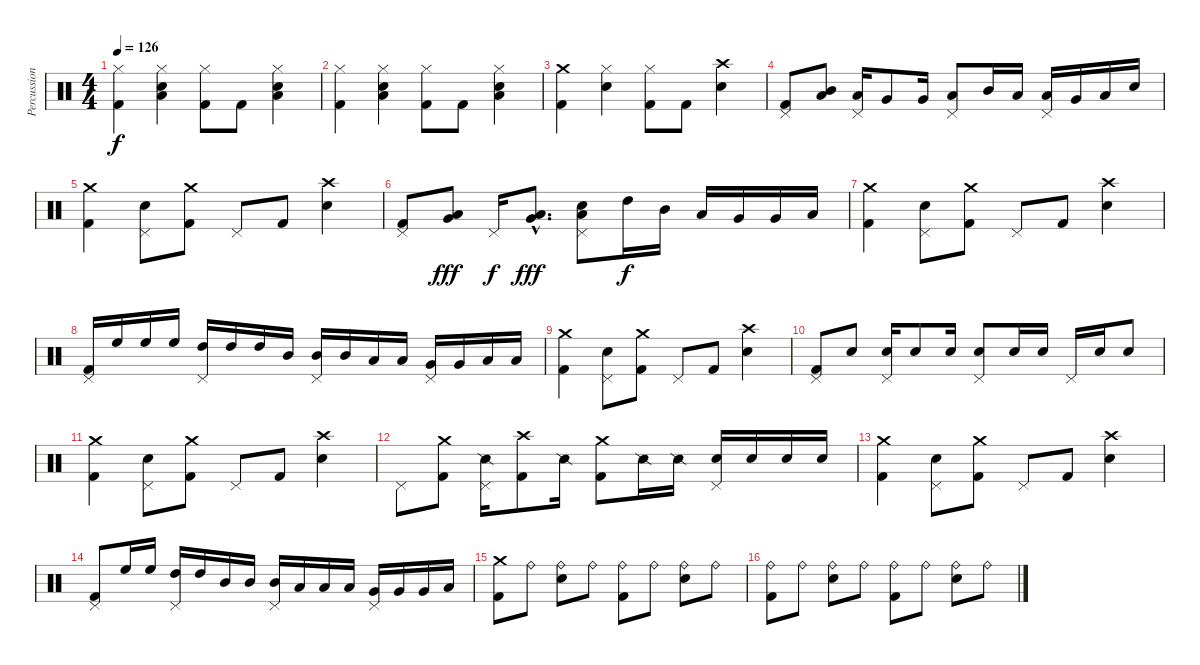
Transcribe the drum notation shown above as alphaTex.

\track ("Percussion" "Percussion") {instrument percussion}
\staff {score}
\articulation defaults
\ts (4 4)
\tempo 126
\clef neutral
\ks c
("Hi-Hat (closed)" "Kick (hit) 2").4{dy f} ("Hi-Hat (closed)" "Low Floor Tom (hit)" "Metronome (bell)").4 ("Hi-Hat (closed)" "Kick (hit) 2").8 "Kick (hit) 2".8 ("Hi-Hat (closed)" "Low Floor Tom (hit)" "Metronome (bell)").4 |
("Hi-Hat (closed)" "Kick (hit) 2").4 ("Hi-Hat (closed)" "Low Floor Tom (hit)" "Metronome (bell)").4 ("Hi-Hat (closed)" "Kick (hit) 2").8 "Kick (hit) 2".8 ("Hi-Hat (closed)" "Low Floor Tom (hit)" "Metronome (bell)").4 |
("Crash medium (hit)" "Kick (hit) 2").4 ("Hi-Hat (closed)" "Metronome (bell)").4 ("Hi-Hat (closed)" "Kick (hit) 2").8 "Kick (hit) 2".8 ("Crash high (hit)" "Metronome (bell)").4 |
("Pedal Hi-Hat (hit)" "Kick (hit) 2").8 ("Mid Tom (hit)" "Low Tom (hit)").8 ("Pedal Hi-Hat (hit)" "Low Tom (hit)").16 "Very Low Tom (hit)".8 "Very Low Tom (hit)".16 ("Pedal Hi-Hat (hit)" "Low Tom (hit)").8 "Mid Tom (hit)".16 "Low Tom (hit)".16 ("Pedal Hi-Hat (hit)" "Low Tom (hit)").16 "Very Low Tom (hit)".16 "Low Floor Tom (hit)".16 "Snare (hit)".16 |
("Crash medium (hit)" "Kick (hit) 2").4 ("Pedal Hi-Hat (hit)" "Metronome (bell)").8 ("Crash medium (hit)" "Kick (hit) 2").8 "Pedal Hi-Hat (hit)".8 "Kick (hit) 2".8 ("Crash high (hit)" "Metronome (bell)").4 |
("Pedal Hi-Hat (hit)" "Kick (hit) 2").8 ("Low Tom (hit)" "Very Low Tom (hit)").8{dy fff} "Pedal Hi-Hat (hit)".16{dy f} ("Very Low Tom (hit)"{hac} "Low Floor Tom (hit)"{hac}).8{d dy fff} ("Pedal Hi-Hat (hit)" "Low Floor Tom (hit)" "Snare (hit)").8 "High Tom (hit)".16{dy f} "Mid Tom (hit)".16 "Low Tom (hit)".16 "Very Low Tom (hit)".16 "Very Low Tom (hit)".16 "Low Floor Tom (hit)".16 |
("Crash medium (hit)" "Kick (hit) 2").4 ("Pedal Hi-Hat (hit)" "Metronome (bell)").8 ("Crash medium (hit)" "Kick (hit) 2").8 "Pedal Hi-Hat (hit)".8 "Kick (hit) 2".8 ("Crash high (hit)" "Metronome (bell)").4 |
("Pedal Hi-Hat (hit)" "Kick (hit) 2").16 "High Floor Tom (hit)".16 "High Floor Tom (hit)".16 "High Floor Tom (hit)".16 ("Pedal Hi-Hat (hit)" "High Tom (hit)").16 "High Tom (hit)".16 "High Tom (hit)".16 "Mid Tom (hit)".16 ("Pedal Hi-Hat (hit)" "Mid Tom (hit)").16 "Mid Tom (hit)".16 "Low Tom (hit)".16 "Low Tom (hit)".16 ("Pedal Hi-Hat (hit)" "Very Low Tom (hit)").16 "Very Low Tom (hit)".16 "Low Floor Tom (hit)".16 "Low Floor Tom (hit)".16 |
("Crash medium (hit)" "Kick (hit) 2").4 ("Pedal Hi-Hat (hit)" "Metronome (bell)").8 ("Crash medium (hit)" "Kick (hit) 2").8 "Pedal Hi-Hat (hit)".8 "Kick (hit) 2".8 ("Crash high (hit)" "Metronome (bell)").4 |
("Pedal Hi-Hat (hit)" "Kick (hit) 2").8 "Metronome (bell)".8 ("Pedal Hi-Hat (hit)" "Metronome (bell)").16 "Metronome (bell)".8 "Metronome (bell)".16 ("Pedal Hi-Hat (hit)" "Metronome (bell)").8 "Metronome (bell)".16 "Metronome (bell)".16 "Pedal Hi-Hat (hit)".16 "Metronome (bell)".16 "Metronome (bell)".8 |
("Crash medium (hit)" "Kick (hit) 2").4 ("Pedal Hi-Hat (hit)" "Metronome (bell)").8 ("Crash medium (hit)" "Kick (hit) 2").8 "Pedal Hi-Hat (hit)".8 "Kick (hit) 2".8 ("Crash high (hit)" "Metronome (bell)").4 |
"Pedal Hi-Hat (hit)".8 ("Crash medium (hit)" "Kick (hit) 2").8 ("Pedal Hi-Hat (hit)" "Snare (side stick) 2").16 ("Crash high (hit)" "Kick (hit) 2").8 "Snare (side stick) 2".16 ("Crash medium (hit)" "Kick (hit) 2").8 "Snare (side stick) 2".16 "Snare (side stick) 2".16 ("Pedal Hi-Hat (hit)" "Metronome (bell)").16 "Metronome (bell)".16 "Metronome (bell)".16 "Metronome (bell)".16 |
("Crash medium (hit)" "Kick (hit) 2").4 ("Pedal Hi-Hat (hit)" "Metronome (bell)").8 ("Crash medium (hit)" "Kick (hit) 2").8 "Pedal Hi-Hat (hit)".8 "Kick (hit) 2".8 ("Crash high (hit)" "Metronome (bell)").4 |
("Pedal Hi-Hat (hit)" "Kick (hit) 2").8 "High Floor Tom (hit)".16 "High Floor Tom (hit)".16 ("Pedal Hi-Hat (hit)" "High Tom (hit)").16 "High Tom (hit)".16 "Mid Tom (hit)".16 "Mid Tom (hit)".16 ("Pedal Hi-Hat (hit)" "Mid Tom (hit)").16 "Low Tom (hit)".16 "Low Tom (hit)".16 "Low Tom (hit)".16 ("Pedal Hi-Hat (hit)" "Very Low Tom (hit)").16 "Very Low Tom (hit)".16 "Very Low Tom (hit)".16 "Low Floor Tom (hit)".16 |
("Crash medium (hit)" "Kick (hit) 2").8 "Ride (bell)".8 ("Ride (bell)" "Metronome (bell)").8 "Ride (bell)".8 ("Ride (bell)" "Kick (hit) 2").8 "Ride (bell)".8 ("Ride (bell)" "Metronome (bell)").8 "Ride (bell)".8 |
("Ride (bell)" "Kick (hit) 2").8 "Ride (bell)".8 ("Ride (bell)" "Metronome (bell)").8 "Ride (bell)".8 ("Ride (bell)" "Kick (hit) 2").8 "Ride (bell)".8 ("Ride (bell)" "Metronome (bell)").8 "Ride (bell)".8
